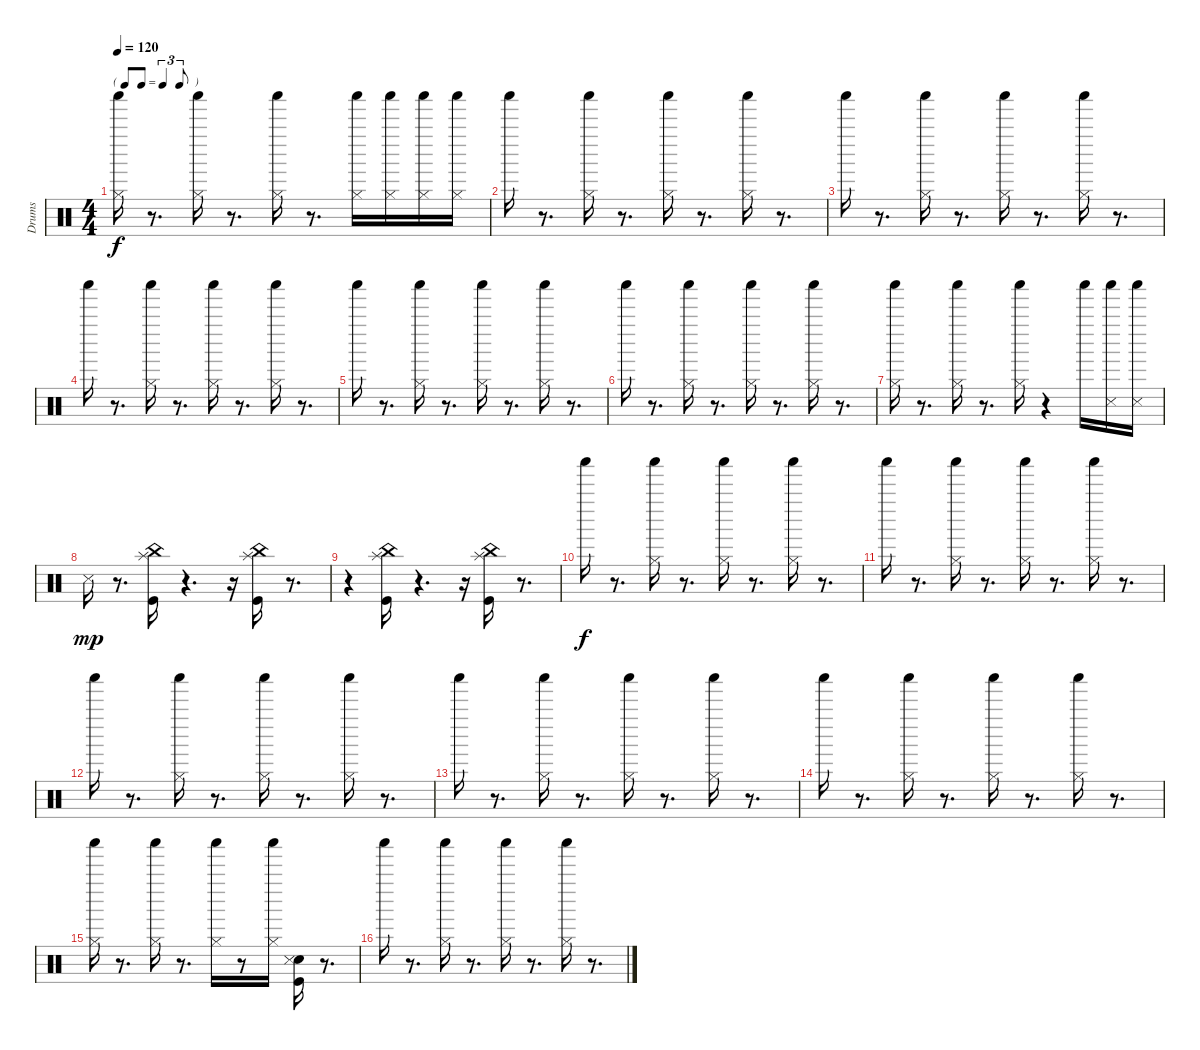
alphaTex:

\track ("Drums  " "Drums  ") {instrument percussion}
\staff {score}
\articulation defaults
\ts (4 4)
\tf triplet8th
\tempo 120
\clef neutral
\ks c
("Shaker (hit)" "Hi-Hat (closed)").16{dy f} r.8{d} ("Shaker (hit)" "Hi-Hat (closed)").16 r.8{d} ("Shaker (hit)" "Hi-Hat (closed)").16 r.8{d} ("Shaker (hit)" "Hi-Hat (closed)").16 ("Shaker (hit)" "Hi-Hat (closed)").16 ("Shaker (hit)" "Hi-Hat (closed)").16 ("Shaker (hit)" "Hi-Hat (closed)").16 |
"Shaker (hit)".16 r.8{d} ("Shaker (hit)" "Hi-Hat (closed)").16 r.8{d} ("Shaker (hit)" "Hi-Hat (closed)").16 r.8{d} ("Shaker (hit)" "Hi-Hat (closed)").16 r.8{d} |
"Shaker (hit)".16 r.8{d} ("Shaker (hit)" "Hi-Hat (closed)").16 r.8{d} ("Shaker (hit)" "Hi-Hat (closed)").16 r.8{d} ("Shaker (hit)" "Hi-Hat (closed)").16 r.8{d} |
"Shaker (hit)".16 r.8{d} ("Shaker (hit)" "Hi-Hat (closed)").16 r.8{d} ("Shaker (hit)" "Hi-Hat (closed)").16 r.8{d} ("Shaker (hit)" "Hi-Hat (closed)").16 r.8{d} |
"Shaker (hit)".16 r.8{d} ("Shaker (hit)" "Hi-Hat (closed)").16 r.8{d} ("Shaker (hit)" "Hi-Hat (closed)").16 r.8{d} ("Shaker (hit)" "Hi-Hat (closed)").16 r.8{d} |
"Shaker (hit)".16 r.8{d} ("Shaker (hit)" "Hi-Hat (closed)").16 r.8{d} ("Shaker (hit)" "Hi-Hat (closed)").16 r.8{d} ("Shaker (hit)" "Hi-Hat (closed)").16 r.8{d} |
("Shaker (hit)" "Hi-Hat (closed)").16 r.8{d} ("Shaker (hit)" "Hi-Hat (closed)").16 r.8{d} ("Shaker (hit)" "Hi-Hat (closed)").16 r.4 "Shaker (hit)".16 ("Snare (side stick) 3" "Shaker (hit)").16 ("Snare (side stick) 3" "Shaker (hit)").16 |
"Snare (side stick) 3".16{dy mp} r.8{d} ("Splash (hit)" "Kick (hit)" "China (hit)").16 r.4{d} r.16 ("Splash (hit)" "Kick (hit)" "China (hit)").16 r.8{d} |
r.4 ("Splash (hit)" "Kick (hit)" "China (hit)").16 r.4{d} r.16 ("Splash (hit)" "Kick (hit)" "China (hit)").16 r.8{d} |
"Shaker (hit)".16{dy f} r.8{d} ("Shaker (hit)" "Hi-Hat (closed)").16 r.8{d} ("Shaker (hit)" "Hi-Hat (closed)").16 r.8{d} ("Shaker (hit)" "Hi-Hat (closed)").16 r.8{d} |
"Shaker (hit)".16 r.8{d} ("Shaker (hit)" "Hi-Hat (closed)").16 r.8{d} ("Shaker (hit)" "Hi-Hat (closed)").16 r.8{d} ("Shaker (hit)" "Hi-Hat (closed)").16 r.8{d} |
"Shaker (hit)".16 r.8{d} ("Shaker (hit)" "Hi-Hat (closed)").16 r.8{d} ("Shaker (hit)" "Hi-Hat (closed)").16 r.8{d} ("Shaker (hit)" "Hi-Hat (closed)").16 r.8{d} |
"Shaker (hit)".16 r.8{d} ("Shaker (hit)" "Hi-Hat (closed)").16 r.8{d} ("Shaker (hit)" "Hi-Hat (closed)").16 r.8{d} ("Shaker (hit)" "Hi-Hat (closed)").16 r.8{d} |
"Shaker (hit)".16 r.8{d} ("Shaker (hit)" "Hi-Hat (closed)").16 r.8{d} ("Shaker (hit)" "Hi-Hat (closed)").16 r.8{d} ("Shaker (hit)" "Hi-Hat (closed)").16 r.8{d} |
("Shaker (hit)" "Hi-Hat (closed)").16 r.8{d} ("Shaker (hit)" "Hi-Hat (closed)").16 r.8{d} ("Shaker (hit)" "Hi-Hat (closed)").16 r.8 ("Shaker (hit)" "Hi-Hat (closed)").16 ("Snare (hit) 2" "Snare (side stick) 3" "Kick (hit)").16 r.8{d} |
"Shaker (hit)".16 r.8{d} ("Shaker (hit)" "Hi-Hat (closed)").16 r.8{d} ("Shaker (hit)" "Hi-Hat (closed)").16 r.8{d} ("Shaker (hit)" "Hi-Hat (closed)").16 r.8{d}
